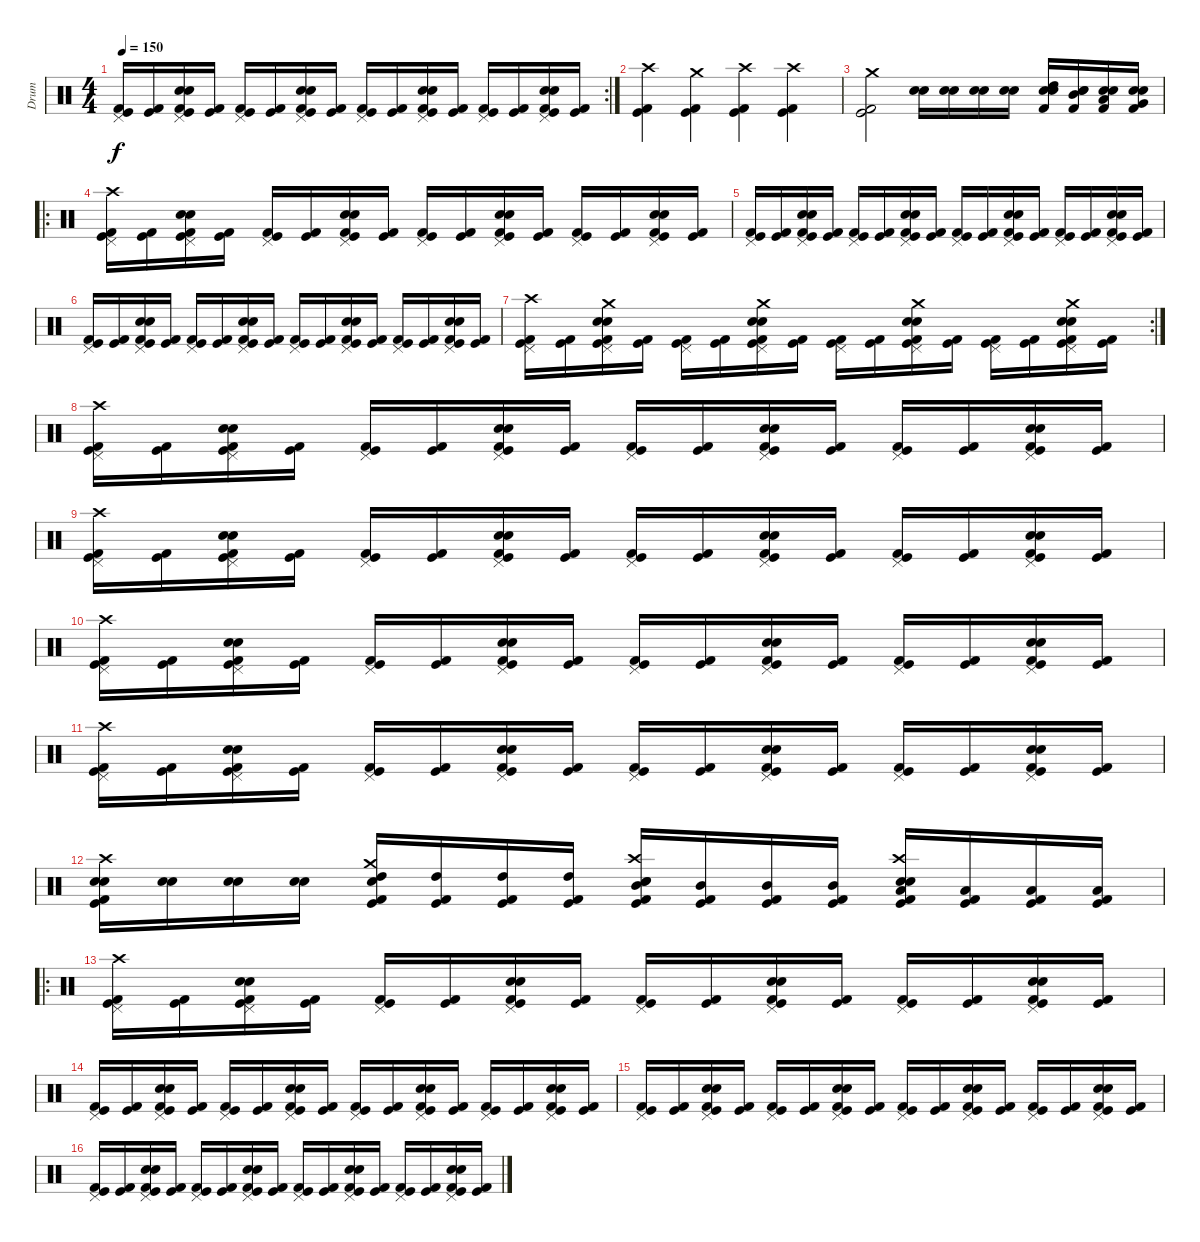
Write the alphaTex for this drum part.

\track ("Drum" "Drum") {instrument percussion}
\staff {score}
\articulation defaults
\rc 2
\ts (4 4)
\tempo 150
\clef neutral
\ks c
("Pedal Hi-Hat (hit)" "Kick (hit) 2" "Kick (hit)").16{dy f} ("Kick (hit) 2" "Kick (hit)").16 ("Pedal Hi-Hat (hit)" "Electric Snare (hit)" "Snare (hit) 2" "Kick (hit) 2" "Kick (hit)").16 ("Kick (hit) 2" "Kick (hit)").16 ("Pedal Hi-Hat (hit)" "Kick (hit) 2" "Kick (hit)").16 ("Kick (hit) 2" "Kick (hit)").16 ("Pedal Hi-Hat (hit)" "Electric Snare (hit)" "Snare (hit) 2" "Kick (hit) 2" "Kick (hit)").16 ("Kick (hit) 2" "Kick (hit)").16 ("Pedal Hi-Hat (hit)" "Kick (hit) 2" "Kick (hit)").16 ("Kick (hit) 2" "Kick (hit)").16 ("Pedal Hi-Hat (hit)" "Electric Snare (hit)" "Snare (hit) 2" "Kick (hit) 2" "Kick (hit)").16 ("Kick (hit) 2" "Kick (hit)").16 ("Pedal Hi-Hat (hit)" "Kick (hit) 2" "Kick (hit)").16 ("Kick (hit) 2" "Kick (hit)").16 ("Pedal Hi-Hat (hit)" "Electric Snare (hit)" "Snare (hit) 2" "Kick (hit) 2" "Kick (hit)").16 ("Kick (hit) 2" "Kick (hit)").16 |
("Crash high (hit)" "Kick (hit) 2" "Kick (hit)").4 ("Crash medium (hit)" "Kick (hit)" "Kick (hit) 2").4 ("Crash high (hit)" "Kick (hit) 2" "Kick (hit)").4 ("Crash high (hit)" "Kick (hit) 2" "Kick (hit)").4 |
("Crash medium (hit)" "Kick (hit) 2" "Kick (hit)").2 ("Snare (hit) 2" "Electric Snare (hit)").16 ("Snare (hit) 2" "Electric Snare (hit)").16 ("Snare (hit) 2" "Electric Snare (hit)").16 ("Snare (hit) 2" "Electric Snare (hit)").16 ("High Tom (hit)" "Snare (hit) 2" "Electric Snare (hit)" "Kick (hit) 2").16 ("Mid Tom (hit)" "Snare (hit) 2" "Electric Snare (hit)" "Kick (hit) 2").16 ("Low Tom (hit)" "Snare (hit) 2" "Electric Snare (hit)" "Kick (hit) 2").16 ("Very Low Tom (hit)" "Snare (hit) 2" "Electric Snare (hit)" "Kick (hit) 2").16 |
\ro
("Crash high (hit)" "Pedal Hi-Hat (hit)" "Kick (hit) 2" "Kick (hit)").16 ("Kick (hit) 2" "Kick (hit)").16 ("Pedal Hi-Hat (hit)" "Electric Snare (hit)" "Snare (hit) 2" "Kick (hit) 2" "Kick (hit)").16 ("Kick (hit) 2" "Kick (hit)").16 ("Pedal Hi-Hat (hit)" "Kick (hit) 2" "Kick (hit)").16 ("Kick (hit) 2" "Kick (hit)").16 ("Pedal Hi-Hat (hit)" "Electric Snare (hit)" "Snare (hit) 2" "Kick (hit) 2" "Kick (hit)").16 ("Kick (hit) 2" "Kick (hit)").16 ("Pedal Hi-Hat (hit)" "Kick (hit) 2" "Kick (hit)").16 ("Kick (hit) 2" "Kick (hit)").16 ("Pedal Hi-Hat (hit)" "Electric Snare (hit)" "Snare (hit) 2" "Kick (hit) 2" "Kick (hit)").16 ("Kick (hit) 2" "Kick (hit)").16 ("Pedal Hi-Hat (hit)" "Kick (hit) 2" "Kick (hit)").16 ("Kick (hit) 2" "Kick (hit)").16 ("Pedal Hi-Hat (hit)" "Electric Snare (hit)" "Snare (hit) 2" "Kick (hit) 2" "Kick (hit)").16 ("Kick (hit) 2" "Kick (hit)").16 |
("Pedal Hi-Hat (hit)" "Kick (hit) 2" "Kick (hit)").16 ("Kick (hit) 2" "Kick (hit)").16 ("Pedal Hi-Hat (hit)" "Electric Snare (hit)" "Snare (hit) 2" "Kick (hit) 2" "Kick (hit)").16 ("Kick (hit) 2" "Kick (hit)").16 ("Pedal Hi-Hat (hit)" "Kick (hit) 2" "Kick (hit)").16 ("Kick (hit) 2" "Kick (hit)").16 ("Pedal Hi-Hat (hit)" "Electric Snare (hit)" "Snare (hit) 2" "Kick (hit) 2" "Kick (hit)").16 ("Kick (hit) 2" "Kick (hit)").16 ("Pedal Hi-Hat (hit)" "Kick (hit) 2" "Kick (hit)").16 ("Kick (hit) 2" "Kick (hit)").16 ("Pedal Hi-Hat (hit)" "Electric Snare (hit)" "Snare (hit) 2" "Kick (hit) 2" "Kick (hit)").16 ("Kick (hit) 2" "Kick (hit)").16 ("Pedal Hi-Hat (hit)" "Kick (hit) 2" "Kick (hit)").16 ("Kick (hit) 2" "Kick (hit)").16 ("Pedal Hi-Hat (hit)" "Electric Snare (hit)" "Snare (hit) 2" "Kick (hit) 2" "Kick (hit)").16 ("Kick (hit) 2" "Kick (hit)").16 |
("Pedal Hi-Hat (hit)" "Kick (hit) 2" "Kick (hit)").16 ("Kick (hit) 2" "Kick (hit)").16 ("Pedal Hi-Hat (hit)" "Electric Snare (hit)" "Snare (hit) 2" "Kick (hit) 2" "Kick (hit)").16 ("Kick (hit) 2" "Kick (hit)").16 ("Pedal Hi-Hat (hit)" "Kick (hit) 2" "Kick (hit)").16 ("Kick (hit) 2" "Kick (hit)").16 ("Pedal Hi-Hat (hit)" "Electric Snare (hit)" "Snare (hit) 2" "Kick (hit) 2" "Kick (hit)").16 ("Kick (hit) 2" "Kick (hit)").16 ("Pedal Hi-Hat (hit)" "Kick (hit) 2" "Kick (hit)").16 ("Kick (hit) 2" "Kick (hit)").16 ("Pedal Hi-Hat (hit)" "Electric Snare (hit)" "Snare (hit) 2" "Kick (hit) 2" "Kick (hit)").16 ("Kick (hit) 2" "Kick (hit)").16 ("Pedal Hi-Hat (hit)" "Kick (hit) 2" "Kick (hit)").16 ("Kick (hit) 2" "Kick (hit)").16 ("Pedal Hi-Hat (hit)" "Electric Snare (hit)" "Snare (hit) 2" "Kick (hit) 2" "Kick (hit)").16 ("Kick (hit) 2" "Kick (hit)").16 |
\rc 2
("Crash high (hit)" "Pedal Hi-Hat (hit)" "Kick (hit) 2" "Kick (hit)").16 ("Kick (hit) 2" "Kick (hit)").16 ("Crash medium (hit)" "Pedal Hi-Hat (hit)" "Electric Snare (hit)" "Snare (hit) 2" "Kick (hit) 2" "Kick (hit)").16 ("Kick (hit) 2" "Kick (hit)").16 ("Pedal Hi-Hat (hit)" "Kick (hit) 2" "Kick (hit)").16 ("Kick (hit) 2" "Kick (hit)").16 ("Crash medium (hit)" "Pedal Hi-Hat (hit)" "Electric Snare (hit)" "Snare (hit) 2" "Kick (hit) 2" "Kick (hit)").16 ("Kick (hit) 2" "Kick (hit)").16 ("Pedal Hi-Hat (hit)" "Kick (hit) 2" "Kick (hit)").16 ("Kick (hit) 2" "Kick (hit)").16 ("Crash medium (hit)" "Pedal Hi-Hat (hit)" "Electric Snare (hit)" "Snare (hit) 2" "Kick (hit) 2" "Kick (hit)").16 ("Kick (hit) 2" "Kick (hit)").16 ("Pedal Hi-Hat (hit)" "Kick (hit) 2" "Kick (hit)").16 ("Kick (hit) 2" "Kick (hit)").16 ("Crash medium (hit)" "Pedal Hi-Hat (hit)" "Electric Snare (hit)" "Snare (hit) 2" "Kick (hit) 2" "Kick (hit)").16 ("Kick (hit) 2" "Kick (hit)").16 |
("Crash high (hit)" "Pedal Hi-Hat (hit)" "Kick (hit) 2" "Kick (hit)").16 ("Kick (hit) 2" "Kick (hit)").16 ("Pedal Hi-Hat (hit)" "Electric Snare (hit)" "Snare (hit) 2" "Kick (hit) 2" "Kick (hit)").16 ("Kick (hit) 2" "Kick (hit)").16 ("Pedal Hi-Hat (hit)" "Kick (hit) 2" "Kick (hit)").16 ("Kick (hit) 2" "Kick (hit)").16 ("Pedal Hi-Hat (hit)" "Electric Snare (hit)" "Snare (hit) 2" "Kick (hit) 2" "Kick (hit)").16 ("Kick (hit) 2" "Kick (hit)").16 ("Pedal Hi-Hat (hit)" "Kick (hit) 2" "Kick (hit)").16 ("Kick (hit) 2" "Kick (hit)").16 ("Pedal Hi-Hat (hit)" "Electric Snare (hit)" "Snare (hit) 2" "Kick (hit) 2" "Kick (hit)").16 ("Kick (hit) 2" "Kick (hit)").16 ("Pedal Hi-Hat (hit)" "Kick (hit) 2" "Kick (hit)").16 ("Kick (hit) 2" "Kick (hit)").16 ("Pedal Hi-Hat (hit)" "Electric Snare (hit)" "Snare (hit) 2" "Kick (hit) 2" "Kick (hit)").16 ("Kick (hit) 2" "Kick (hit)").16 |
("Crash high (hit)" "Pedal Hi-Hat (hit)" "Kick (hit) 2" "Kick (hit)").16 ("Kick (hit) 2" "Kick (hit)").16 ("Pedal Hi-Hat (hit)" "Electric Snare (hit)" "Snare (hit) 2" "Kick (hit) 2" "Kick (hit)").16 ("Kick (hit) 2" "Kick (hit)").16 ("Pedal Hi-Hat (hit)" "Kick (hit) 2" "Kick (hit)").16 ("Kick (hit) 2" "Kick (hit)").16 ("Pedal Hi-Hat (hit)" "Electric Snare (hit)" "Snare (hit) 2" "Kick (hit) 2" "Kick (hit)").16 ("Kick (hit) 2" "Kick (hit)").16 ("Pedal Hi-Hat (hit)" "Kick (hit) 2" "Kick (hit)").16 ("Kick (hit) 2" "Kick (hit)").16 ("Pedal Hi-Hat (hit)" "Electric Snare (hit)" "Snare (hit) 2" "Kick (hit) 2" "Kick (hit)").16 ("Kick (hit) 2" "Kick (hit)").16 ("Pedal Hi-Hat (hit)" "Kick (hit) 2" "Kick (hit)").16 ("Kick (hit) 2" "Kick (hit)").16 ("Pedal Hi-Hat (hit)" "Electric Snare (hit)" "Snare (hit) 2" "Kick (hit) 2" "Kick (hit)").16 ("Kick (hit) 2" "Kick (hit)").16 |
("Crash high (hit)" "Pedal Hi-Hat (hit)" "Kick (hit) 2" "Kick (hit)").16 ("Kick (hit) 2" "Kick (hit)").16 ("Pedal Hi-Hat (hit)" "Electric Snare (hit)" "Snare (hit) 2" "Kick (hit) 2" "Kick (hit)").16 ("Kick (hit) 2" "Kick (hit)").16 ("Pedal Hi-Hat (hit)" "Kick (hit) 2" "Kick (hit)").16 ("Kick (hit) 2" "Kick (hit)").16 ("Pedal Hi-Hat (hit)" "Electric Snare (hit)" "Snare (hit) 2" "Kick (hit) 2" "Kick (hit)").16 ("Kick (hit) 2" "Kick (hit)").16 ("Pedal Hi-Hat (hit)" "Kick (hit) 2" "Kick (hit)").16 ("Kick (hit) 2" "Kick (hit)").16 ("Pedal Hi-Hat (hit)" "Electric Snare (hit)" "Snare (hit) 2" "Kick (hit) 2" "Kick (hit)").16 ("Kick (hit) 2" "Kick (hit)").16 ("Pedal Hi-Hat (hit)" "Kick (hit) 2" "Kick (hit)").16 ("Kick (hit) 2" "Kick (hit)").16 ("Pedal Hi-Hat (hit)" "Electric Snare (hit)" "Snare (hit) 2" "Kick (hit) 2" "Kick (hit)").16 ("Kick (hit) 2" "Kick (hit)").16 |
("Crash high (hit)" "Pedal Hi-Hat (hit)" "Kick (hit) 2" "Kick (hit)").16 ("Kick (hit) 2" "Kick (hit)").16 ("Pedal Hi-Hat (hit)" "Electric Snare (hit)" "Snare (hit) 2" "Kick (hit) 2" "Kick (hit)").16 ("Kick (hit) 2" "Kick (hit)").16 ("Pedal Hi-Hat (hit)" "Kick (hit) 2" "Kick (hit)").16 ("Kick (hit) 2" "Kick (hit)").16 ("Pedal Hi-Hat (hit)" "Electric Snare (hit)" "Snare (hit) 2" "Kick (hit) 2" "Kick (hit)").16 ("Kick (hit) 2" "Kick (hit)").16 ("Pedal Hi-Hat (hit)" "Kick (hit) 2" "Kick (hit)").16 ("Kick (hit) 2" "Kick (hit)").16 ("Pedal Hi-Hat (hit)" "Electric Snare (hit)" "Snare (hit) 2" "Kick (hit) 2" "Kick (hit)").16 ("Kick (hit) 2" "Kick (hit)").16 ("Pedal Hi-Hat (hit)" "Kick (hit) 2" "Kick (hit)").16 ("Kick (hit) 2" "Kick (hit)").16 ("Pedal Hi-Hat (hit)" "Electric Snare (hit)" "Snare (hit) 2" "Kick (hit) 2" "Kick (hit)").16 ("Kick (hit) 2" "Kick (hit)").16 |
("Crash high (hit)" "Electric Snare (hit)" "Snare (hit) 2" "Kick (hit)" "Kick (hit) 2").16 ("Electric Snare (hit)" "Snare (hit) 2").16 ("Electric Snare (hit)" "Snare (hit) 2").16 ("Electric Snare (hit)" "Snare (hit) 2").16 ("Crash medium (hit)" "High Tom (hit)" "Electric Snare (hit)" "Kick (hit)" "Kick (hit) 2").16 ("High Tom (hit)" "Kick (hit)" "Kick (hit) 2").16 ("High Tom (hit)" "Kick (hit)" "Kick (hit) 2").16 ("High Tom (hit)" "Kick (hit)" "Kick (hit) 2").16 ("Crash high (hit)" "Mid Tom (hit)" "Electric Snare (hit)" "Snare (hit) 2" "Kick (hit)" "Kick (hit) 2").16 ("Mid Tom (hit)" "Kick (hit)" "Kick (hit) 2").16 ("Mid Tom (hit)" "Kick (hit)" "Kick (hit) 2").16 ("Mid Tom (hit)" "Kick (hit)" "Kick (hit) 2").16 ("Crash high (hit)" "Low Tom (hit)" "Electric Snare (hit)" "Snare (hit) 2" "Kick (hit)" "Kick (hit) 2").16 ("Low Tom (hit)" "Kick (hit)" "Kick (hit) 2").16 ("Low Tom (hit)" "Kick (hit)" "Kick (hit) 2").16 ("Low Tom (hit)" "Kick (hit)" "Kick (hit) 2").16 |
\ro
("Crash high (hit)" "Pedal Hi-Hat (hit)" "Kick (hit) 2" "Kick (hit)").16 ("Kick (hit) 2" "Kick (hit)").16 ("Pedal Hi-Hat (hit)" "Electric Snare (hit)" "Snare (hit) 2" "Kick (hit) 2" "Kick (hit)").16 ("Kick (hit) 2" "Kick (hit)").16 ("Pedal Hi-Hat (hit)" "Kick (hit) 2" "Kick (hit)").16 ("Kick (hit) 2" "Kick (hit)").16 ("Pedal Hi-Hat (hit)" "Electric Snare (hit)" "Snare (hit) 2" "Kick (hit) 2" "Kick (hit)").16 ("Kick (hit) 2" "Kick (hit)").16 ("Pedal Hi-Hat (hit)" "Kick (hit) 2" "Kick (hit)").16 ("Kick (hit) 2" "Kick (hit)").16 ("Pedal Hi-Hat (hit)" "Electric Snare (hit)" "Snare (hit) 2" "Kick (hit) 2" "Kick (hit)").16 ("Kick (hit) 2" "Kick (hit)").16 ("Pedal Hi-Hat (hit)" "Kick (hit) 2" "Kick (hit)").16 ("Kick (hit) 2" "Kick (hit)").16 ("Pedal Hi-Hat (hit)" "Electric Snare (hit)" "Snare (hit) 2" "Kick (hit) 2" "Kick (hit)").16 ("Kick (hit) 2" "Kick (hit)").16 |
("Pedal Hi-Hat (hit)" "Kick (hit) 2" "Kick (hit)").16 ("Kick (hit) 2" "Kick (hit)").16 ("Pedal Hi-Hat (hit)" "Electric Snare (hit)" "Snare (hit) 2" "Kick (hit) 2" "Kick (hit)").16 ("Kick (hit) 2" "Kick (hit)").16 ("Pedal Hi-Hat (hit)" "Kick (hit) 2" "Kick (hit)").16 ("Kick (hit) 2" "Kick (hit)").16 ("Pedal Hi-Hat (hit)" "Electric Snare (hit)" "Snare (hit) 2" "Kick (hit) 2" "Kick (hit)").16 ("Kick (hit) 2" "Kick (hit)").16 ("Pedal Hi-Hat (hit)" "Kick (hit) 2" "Kick (hit)").16 ("Kick (hit) 2" "Kick (hit)").16 ("Pedal Hi-Hat (hit)" "Electric Snare (hit)" "Snare (hit) 2" "Kick (hit) 2" "Kick (hit)").16 ("Kick (hit) 2" "Kick (hit)").16 ("Pedal Hi-Hat (hit)" "Kick (hit) 2" "Kick (hit)").16 ("Kick (hit) 2" "Kick (hit)").16 ("Pedal Hi-Hat (hit)" "Electric Snare (hit)" "Snare (hit) 2" "Kick (hit) 2" "Kick (hit)").16 ("Kick (hit) 2" "Kick (hit)").16 |
("Pedal Hi-Hat (hit)" "Kick (hit) 2" "Kick (hit)").16 ("Kick (hit) 2" "Kick (hit)").16 ("Pedal Hi-Hat (hit)" "Electric Snare (hit)" "Snare (hit) 2" "Kick (hit) 2" "Kick (hit)").16 ("Kick (hit) 2" "Kick (hit)").16 ("Pedal Hi-Hat (hit)" "Kick (hit) 2" "Kick (hit)").16 ("Kick (hit) 2" "Kick (hit)").16 ("Pedal Hi-Hat (hit)" "Electric Snare (hit)" "Snare (hit) 2" "Kick (hit) 2" "Kick (hit)").16 ("Kick (hit) 2" "Kick (hit)").16 ("Pedal Hi-Hat (hit)" "Kick (hit) 2" "Kick (hit)").16 ("Kick (hit) 2" "Kick (hit)").16 ("Pedal Hi-Hat (hit)" "Electric Snare (hit)" "Snare (hit) 2" "Kick (hit) 2" "Kick (hit)").16 ("Kick (hit) 2" "Kick (hit)").16 ("Pedal Hi-Hat (hit)" "Kick (hit) 2" "Kick (hit)").16 ("Kick (hit) 2" "Kick (hit)").16 ("Pedal Hi-Hat (hit)" "Electric Snare (hit)" "Snare (hit) 2" "Kick (hit) 2" "Kick (hit)").16 ("Kick (hit) 2" "Kick (hit)").16 |
("Pedal Hi-Hat (hit)" "Kick (hit) 2" "Kick (hit)").16 ("Kick (hit) 2" "Kick (hit)").16 ("Pedal Hi-Hat (hit)" "Electric Snare (hit)" "Snare (hit) 2" "Kick (hit) 2" "Kick (hit)").16 ("Kick (hit) 2" "Kick (hit)").16 ("Pedal Hi-Hat (hit)" "Kick (hit) 2" "Kick (hit)").16 ("Kick (hit) 2" "Kick (hit)").16 ("Pedal Hi-Hat (hit)" "Electric Snare (hit)" "Snare (hit) 2" "Kick (hit) 2" "Kick (hit)").16 ("Kick (hit) 2" "Kick (hit)").16 ("Pedal Hi-Hat (hit)" "Kick (hit) 2" "Kick (hit)").16 ("Kick (hit) 2" "Kick (hit)").16 ("Pedal Hi-Hat (hit)" "Electric Snare (hit)" "Snare (hit) 2" "Kick (hit) 2" "Kick (hit)").16 ("Kick (hit) 2" "Kick (hit)").16 ("Pedal Hi-Hat (hit)" "Kick (hit) 2" "Kick (hit)").16 ("Kick (hit) 2" "Kick (hit)").16 ("Pedal Hi-Hat (hit)" "Electric Snare (hit)" "Snare (hit) 2" "Kick (hit) 2" "Kick (hit)").16 ("Kick (hit) 2" "Kick (hit)").16
